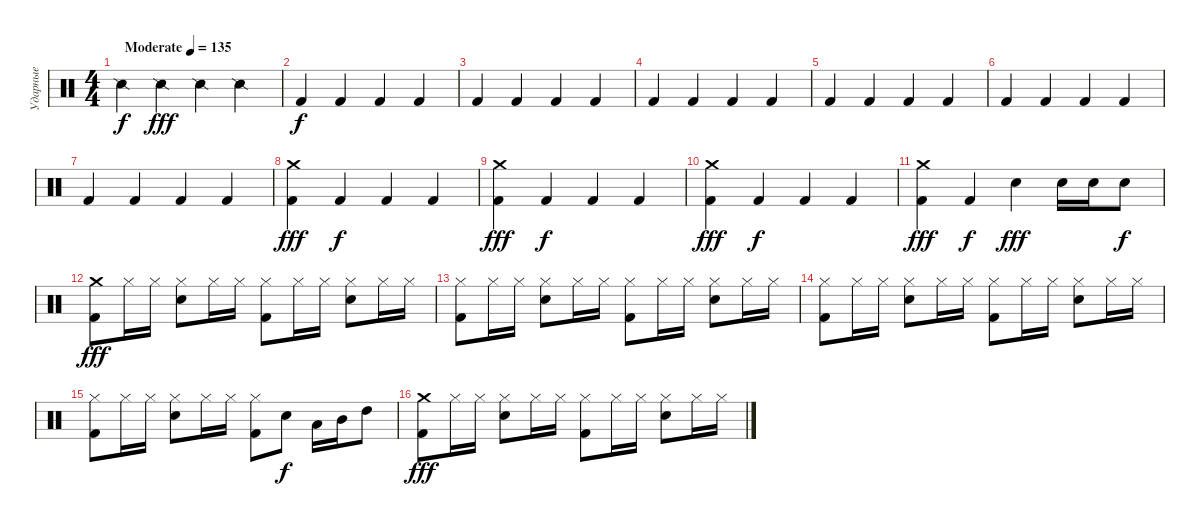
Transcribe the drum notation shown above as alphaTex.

\track ("Ударные" "Ударные") {instrument percussion}
\staff {score}
\articulation defaults
\ts (4 4)
\tempo (135 "Moderate")
\clef neutral
\ks c "Snare (side stick) 2".4{dy f} "Snare (side stick) 2".4{dy fff} "Snare (side stick) 2".4 "Snare (side stick) 2".4
|
"Kick (hit) 2".4{dy f} "Kick (hit) 2".4 "Kick (hit) 2".4 "Kick (hit) 2".4 |
"Kick (hit) 2".4 "Kick (hit) 2".4 "Kick (hit) 2".4 "Kick (hit) 2".4 |
"Kick (hit) 2".4 "Kick (hit) 2".4 "Kick (hit) 2".4 "Kick (hit) 2".4 |
"Kick (hit) 2".4 "Kick (hit) 2".4 "Kick (hit) 2".4 "Kick (hit) 2".4 |
"Kick (hit) 2".4 "Kick (hit) 2".4 "Kick (hit) 2".4 "Kick (hit) 2".4 |
"Kick (hit) 2".4 "Kick (hit) 2".4 "Kick (hit) 2".4 "Kick (hit) 2".4 |
("Crash medium (hit)" "Kick (hit) 2").4{dy fff} "Kick (hit) 2".4{dy f} "Kick (hit) 2".4 "Kick (hit) 2".4 |
("Crash medium (hit)" "Kick (hit) 2").4{dy fff} "Kick (hit) 2".4{dy f} "Kick (hit) 2".4 "Kick (hit) 2".4 |
("Crash medium (hit)" "Kick (hit) 2").4{dy fff} "Kick (hit) 2".4{dy f} "Kick (hit) 2".4 "Kick (hit) 2".4 |
("Crash medium (hit)" "Kick (hit) 2").4{dy fff} "Kick (hit) 2".4{dy f} "Electric Snare (hit)".4{dy fff} "Electric Snare (hit)".16 "Electric Snare (hit)".16 "Electric Snare (hit)".8{dy f} |
("Crash medium (hit)" "Kick (hit) 2").8{dy fff} "Hi-Hat (closed)".16 "Hi-Hat (closed)".16 ("Hi-Hat (closed)" "Electric Snare (hit)").8 "Hi-Hat (closed)".16 "Hi-Hat (closed)".16 ("Hi-Hat (closed)" "Kick (hit) 2").8 "Hi-Hat (closed)".16 "Hi-Hat (closed)".16 ("Hi-Hat (closed)" "Electric Snare (hit)").8 "Hi-Hat (closed)".16 "Hi-Hat (closed)".16 |
("Hi-Hat (closed)" "Kick (hit) 2").8 "Hi-Hat (closed)".16 "Hi-Hat (closed)".16 ("Hi-Hat (closed)" "Electric Snare (hit)").8 "Hi-Hat (closed)".16 "Hi-Hat (closed)".16 ("Hi-Hat (closed)" "Kick (hit) 2").8 "Hi-Hat (closed)".16 "Hi-Hat (closed)".16 ("Hi-Hat (closed)" "Electric Snare (hit)").8 "Hi-Hat (closed)".16 "Hi-Hat (closed)".16 |
("Hi-Hat (closed)" "Kick (hit) 2").8 "Hi-Hat (closed)".16 "Hi-Hat (closed)".16 ("Hi-Hat (closed)" "Electric Snare (hit)").8 "Hi-Hat (closed)".16 "Hi-Hat (closed)".16 ("Hi-Hat (closed)" "Kick (hit) 2").8 "Hi-Hat (closed)".16 "Hi-Hat (closed)".16 ("Hi-Hat (closed)" "Electric Snare (hit)").8 "Hi-Hat (closed)".16 "Hi-Hat (closed)".16 |
("Hi-Hat (closed)" "Kick (hit) 2").8 "Hi-Hat (closed)".16 "Hi-Hat (closed)".16 ("Hi-Hat (closed)" "Electric Snare (hit)").8 "Hi-Hat (closed)".16 "Hi-Hat (closed)".16 ("Hi-Hat (closed)" "Kick (hit) 2").8 "Electric Snare (hit)".8{dy f} "Low Tom (hit)".16 "Mid Tom (hit)".16 "High Tom (hit)".8 |
("Crash medium (hit)" "Kick (hit) 2").8{dy fff} "Hi-Hat (closed)".16 "Hi-Hat (closed)".16 ("Hi-Hat (closed)" "Electric Snare (hit)").8 "Hi-Hat (closed)".16 "Hi-Hat (closed)".16 ("Hi-Hat (closed)" "Kick (hit) 2").8 "Hi-Hat (closed)".16 "Hi-Hat (closed)".16 ("Hi-Hat (closed)" "Electric Snare (hit)").8 "Hi-Hat (closed)".16 "Hi-Hat (closed)".16
